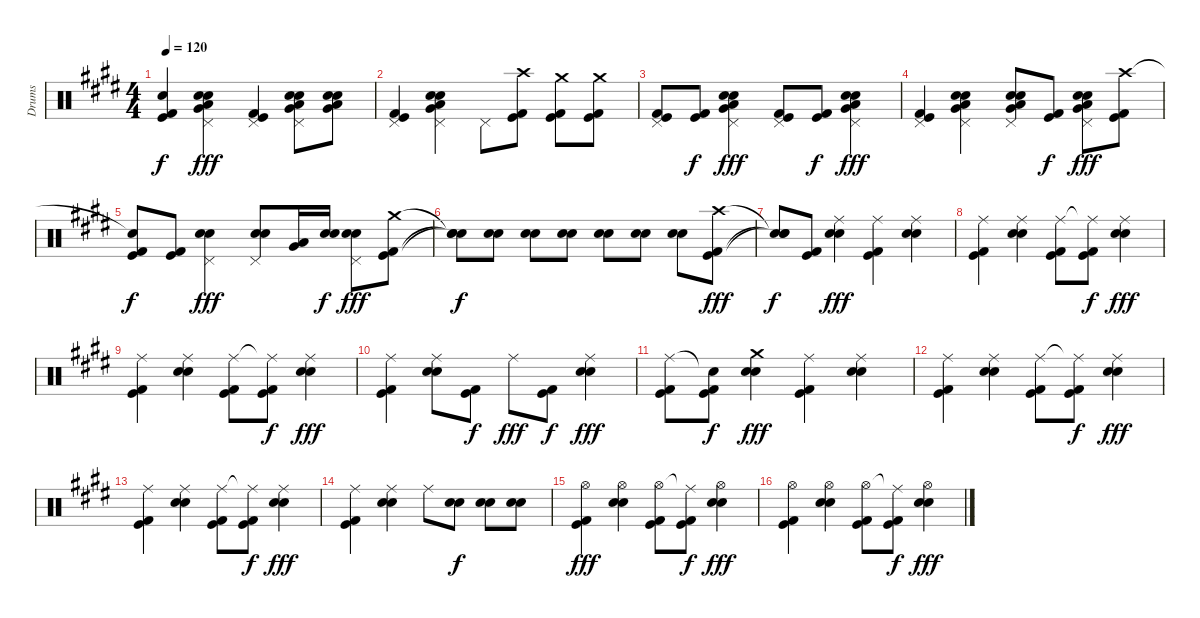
\track ("Drums" "Drums") {instrument percussion}
\staff {score}
\articulation defaults
\ts (4 4)
\tempo 120
\clef neutral
\ks e
("Snare (hit)"{t} "Kick (hit)" "Kick (hit) 2").4{dy f} ("Pedal Hi-Hat (hit)" "Electric Snare (hit)" "Snare (hit) 2" "Very Low Tom (hit)" "Low Floor Tom (hit)").4{dy fff} ("Pedal Hi-Hat (hit)" "Kick (hit)" "Kick (hit) 2").4 ("Pedal Hi-Hat (hit)" "Electric Snare (hit)" "Snare (hit) 2" "Very Low Tom (hit)" "Low Floor Tom (hit)").8 ("Electric Snare (hit)" "Snare (hit) 2" "Very Low Tom (hit)" "Low Floor Tom (hit)").8 |
("Pedal Hi-Hat (hit)" "Kick (hit)" "Kick (hit) 2").4 ("Pedal Hi-Hat (hit)" "Electric Snare (hit)" "Snare (hit) 2" "Very Low Tom (hit)" "Low Floor Tom (hit)").4 "Pedal Hi-Hat (hit)".8 ("Crash high (hit)" "Kick (hit)" "Kick (hit) 2").8 ("Crash medium (hit)" "Kick (hit)" "Kick (hit) 2").8 ("Crash medium (hit)" "Kick (hit)" "Kick (hit) 2").8 |
("Pedal Hi-Hat (hit)" "Kick (hit)" "Kick (hit) 2").8 ("Kick (hit)" "Kick (hit) 2").8{dy f} ("Pedal Hi-Hat (hit)" "Snare (hit) 2" "Electric Snare (hit)" "Very Low Tom (hit)" "Low Floor Tom (hit)").4{dy fff} ("Pedal Hi-Hat (hit)" "Kick (hit)" "Kick (hit) 2").8 ("Kick (hit)" "Kick (hit) 2").8{dy f} ("Pedal Hi-Hat (hit)" "Electric Snare (hit)" "Snare (hit) 2" "Very Low Tom (hit)" "Low Floor Tom (hit)").4{dy fff} |
("Pedal Hi-Hat (hit)" "Kick (hit)" "Kick (hit) 2").4 ("Pedal Hi-Hat (hit)" "Electric Snare (hit)" "Snare (hit) 2" "Very Low Tom (hit)" "Low Floor Tom (hit)").4 ("Pedal Hi-Hat (hit)" "Electric Snare (hit)" "Snare (hit) 2" "Very Low Tom (hit)" "Low Floor Tom (hit)").8 ("Kick (hit)" "Kick (hit) 2").8{dy f} ("Pedal Hi-Hat (hit)" "Electric Snare (hit)" "Snare (hit) 2" "Very Low Tom (hit)" "Low Floor Tom (hit)").8{dy fff} ("Crash high (hit)" "Kick (hit)" "Kick (hit) 2").8 |
("Snare (hit)"{t} "Kick (hit)" "Kick (hit) 2").8{dy f} ("Kick (hit)" "Kick (hit) 2").8 ("Pedal Hi-Hat (hit)" "Electric Snare (hit)" "Snare (hit) 2").4{dy fff} ("Pedal Hi-Hat (hit)" "Electric Snare (hit)" "Snare (hit) 2").8 ("Very Low Tom (hit)" "Low Floor Tom (hit)").16 ("Electric Snare (hit)" "Snare (hit) 2").16{dy f} ("Pedal Hi-Hat (hit)" "Electric Snare (hit)" "Snare (hit) 2").8{dy fff} ("Crash medium (hit)" "Kick (hit)" "Kick (hit) 2").8 |
("Snare (hit)"{t} "Snare (hit)"{t} "Snare (hit)"{t}).8{dy f} ("Electric Snare (hit)" "Snare (hit) 2").8 ("Electric Snare (hit)" "Snare (hit) 2").8 ("Electric Snare (hit)" "Snare (hit) 2").8 ("Electric Snare (hit)" "Snare (hit) 2").8 ("Electric Snare (hit)" "Snare (hit) 2").8 ("Electric Snare (hit)" "Snare (hit) 2").8 ("Crash high (hit)" "Kick (hit)" "Kick (hit) 2").8{dy fff} |
("Snare (hit)"{t} "Snare (hit)"{t} "Snare (hit)"{t}).8{dy f} ("Kick (hit)" "Kick (hit) 2").8 ("Ride (middle)" "Electric Snare (hit)" "Snare (hit) 2").4{dy fff} ("Ride (middle)" "Kick (hit)" "Kick (hit) 2").4 ("Ride (middle)" "Electric Snare (hit)" "Snare (hit) 2").4 |
("Ride (middle)" "Kick (hit)" "Kick (hit) 2").4 ("Ride (middle)" "Electric Snare (hit)" "Snare (hit) 2").4 ("Ride (middle)" "Kick (hit)" "Kick (hit) 2").8 ("Ride (middle)"{t} "Kick (hit)" "Kick (hit) 2").8{dy f} ("Ride (middle)" "Electric Snare (hit)" "Snare (hit) 2").4{dy fff} |
("Ride (middle)" "Kick (hit)" "Kick (hit) 2").4 ("Ride (middle)" "Electric Snare (hit)" "Snare (hit) 2").4 ("Ride (middle)" "Kick (hit)" "Kick (hit) 2").8 ("Ride (middle)"{t} "Kick (hit)" "Kick (hit) 2").8{dy f} ("Ride (middle)" "Electric Snare (hit)" "Snare (hit) 2").4{dy fff} |
("Ride (middle)" "Kick (hit)" "Kick (hit) 2").4 ("Ride (middle)" "Electric Snare (hit)" "Snare (hit) 2").8 ("Kick (hit)" "Kick (hit) 2").8{dy f} "Ride (middle)".8{dy fff} ("Kick (hit) 2" "Kick (hit)").8{dy f} ("Ride (middle)" "Electric Snare (hit)" "Snare (hit) 2").4{dy fff} |
("Ride (middle)" "Kick (hit)" "Kick (hit) 2").8 ("Snare (hit)"{t} "Kick (hit)" "Kick (hit) 2").8{dy f} ("Crash medium (hit)" "Electric Snare (hit)" "Snare (hit) 2").4{dy fff} ("Ride (middle)" "Kick (hit)" "Kick (hit) 2").4 ("Ride (middle)" "Electric Snare (hit)" "Snare (hit) 2").4 |
("Ride (middle)" "Kick (hit)" "Kick (hit) 2").4 ("Ride (middle)" "Electric Snare (hit)" "Snare (hit) 2").4 ("Ride (middle)" "Kick (hit)" "Kick (hit) 2").8 ("Ride (middle)"{t} "Kick (hit)" "Kick (hit) 2").8{dy f} ("Ride (middle)" "Electric Snare (hit)" "Snare (hit) 2").4{dy fff} |
("Ride (middle)" "Kick (hit)" "Kick (hit) 2").4 ("Ride (middle)" "Electric Snare (hit)" "Snare (hit) 2").4 ("Ride (middle)" "Kick (hit)" "Kick (hit) 2").8 ("Ride (middle)"{t} "Kick (hit)" "Kick (hit) 2").8{dy f} ("Ride (middle)" "Electric Snare (hit)" "Snare (hit) 2").4{dy fff} |
("Ride (middle)" "Kick (hit)" "Kick (hit) 2").4 ("Ride (middle)" "Electric Snare (hit)" "Snare (hit) 2").4 "Ride (middle)".8 ("Electric Snare (hit)" "Snare (hit) 2").8{dy f} ("Electric Snare (hit)" "Snare (hit) 2").8 ("Electric Snare (hit)" "Snare (hit) 2").8 |
("Hi-Hat (open)" "Kick (hit)" "Kick (hit) 2").4{dy fff} ("Hi-Hat (open)" "Electric Snare (hit)" "Snare (hit) 2").4 ("Hi-Hat (open)" "Kick (hit)" "Kick (hit) 2").8 ("Ride (middle)"{t} "Kick (hit)" "Kick (hit) 2").8{dy f} ("Hi-Hat (open)" "Electric Snare (hit)" "Snare (hit) 2").4{dy fff} |
("Hi-Hat (open)" "Kick (hit)" "Kick (hit) 2").4 ("Hi-Hat (open)" "Electric Snare (hit)" "Snare (hit) 2").4 ("Hi-Hat (open)" "Kick (hit)" "Kick (hit) 2").8 ("Ride (middle)"{t} "Kick (hit)" "Kick (hit) 2").8{dy f} ("Hi-Hat (open)" "Electric Snare (hit)" "Snare (hit) 2").4{dy fff}
